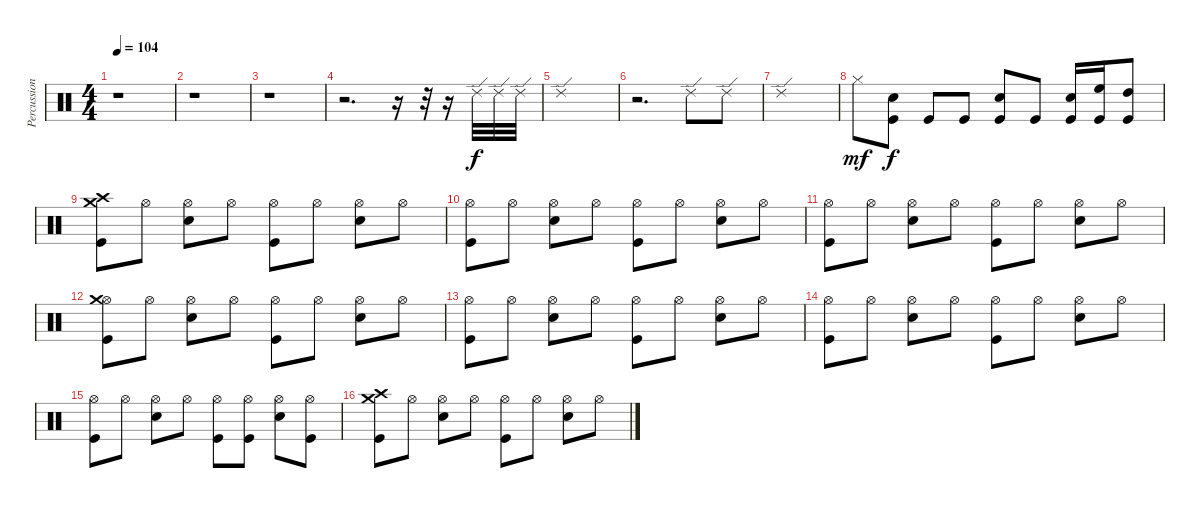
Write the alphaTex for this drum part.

\track ("Percussion" "Percussion") {instrument percussion}
\staff {score}
\articulation defaults
\ts (4 4)
\tempo 104
\clef neutral
\ks c
r.1{dy f} |
r.1 |
r.1 |
r.2{d} r.16 r.32 r.16 "Ride (edge) 2".32 "Ride (edge) 2".32 "Ride (edge) 2".32 |
"Ride (edge) 2".1 |
r.2{d} "Ride (edge) 2".8 "Ride (edge) 2".8 |
"Ride (edge) 2".1 |
"Hi-Hat (closed)".8{dy mf} ("Snare (hit) 2" "Kick (hit)").8{dy f} "Kick (hit)".8 "Kick (hit)".8 ("Snare (hit) 2" "Kick (hit)").8 "Kick (hit)".8 ("Snare (hit) 2" "Kick (hit)").16 ("High Floor Tom (hit)" "Kick (hit)").16 ("High Tom (hit)" "Kick (hit)").8 |
("Crash high (hit)" "Crash medium (hit)" "Kick (hit)").8 "Hi-Hat (open)".8 ("Hi-Hat (open)" "Snare (hit) 2").8 "Hi-Hat (open)".8 ("Hi-Hat (open)" "Kick (hit)").8 "Hi-Hat (open)".8 ("Hi-Hat (open)" "Snare (hit) 2").8 "Hi-Hat (open)".8 |
("Hi-Hat (open)" "Kick (hit)").8 "Hi-Hat (open)".8 ("Hi-Hat (open)" "Snare (hit) 2").8 "Hi-Hat (open)".8 ("Hi-Hat (open)" "Kick (hit)").8 "Hi-Hat (open)".8 ("Hi-Hat (open)" "Snare (hit) 2").8 "Hi-Hat (open)".8 |
("Hi-Hat (open)" "Kick (hit)").8 "Hi-Hat (open)".8 ("Hi-Hat (open)" "Snare (hit) 2").8 "Hi-Hat (open)".8 ("Hi-Hat (open)" "Kick (hit)").8 "Hi-Hat (open)".8 ("Hi-Hat (open)" "Snare (hit) 2").8 "Hi-Hat (open)".8 |
("Hi-Hat (open)" "Crash medium (hit)" "Kick (hit)").8 "Hi-Hat (open)".8 ("Hi-Hat (open)" "Snare (hit) 2").8 "Hi-Hat (open)".8 ("Hi-Hat (open)" "Kick (hit)").8 "Hi-Hat (open)".8 ("Hi-Hat (open)" "Snare (hit) 2").8 "Hi-Hat (open)".8 |
("Hi-Hat (open)" "Kick (hit)").8 "Hi-Hat (open)".8 ("Hi-Hat (open)" "Snare (hit) 2").8 "Hi-Hat (open)".8 ("Hi-Hat (open)" "Kick (hit)").8 "Hi-Hat (open)".8 ("Hi-Hat (open)" "Snare (hit) 2").8 "Hi-Hat (open)".8 |
("Hi-Hat (open)" "Kick (hit)").8 "Hi-Hat (open)".8 ("Hi-Hat (open)" "Snare (hit) 2").8 "Hi-Hat (open)".8 ("Hi-Hat (open)" "Kick (hit)").8 "Hi-Hat (open)".8 ("Hi-Hat (open)" "Snare (hit) 2").8 "Hi-Hat (open)".8 |
("Hi-Hat (open)" "Kick (hit)").8 "Hi-Hat (open)".8 ("Hi-Hat (open)" "Snare (hit) 2").8 "Hi-Hat (open)".8 ("Hi-Hat (open)" "Kick (hit)").8 ("Hi-Hat (open)" "Kick (hit)").8 ("Hi-Hat (open)" "Snare (hit) 2").8 ("Hi-Hat (open)" "Kick (hit)").8 |
("Crash high (hit)" "Crash medium (hit)" "Kick (hit)").8 "Hi-Hat (open)".8 ("Hi-Hat (open)" "Snare (hit) 2").8 "Hi-Hat (open)".8 ("Hi-Hat (open)" "Kick (hit)").8 "Hi-Hat (open)".8 ("Hi-Hat (open)" "Snare (hit) 2").8 "Hi-Hat (open)".8
